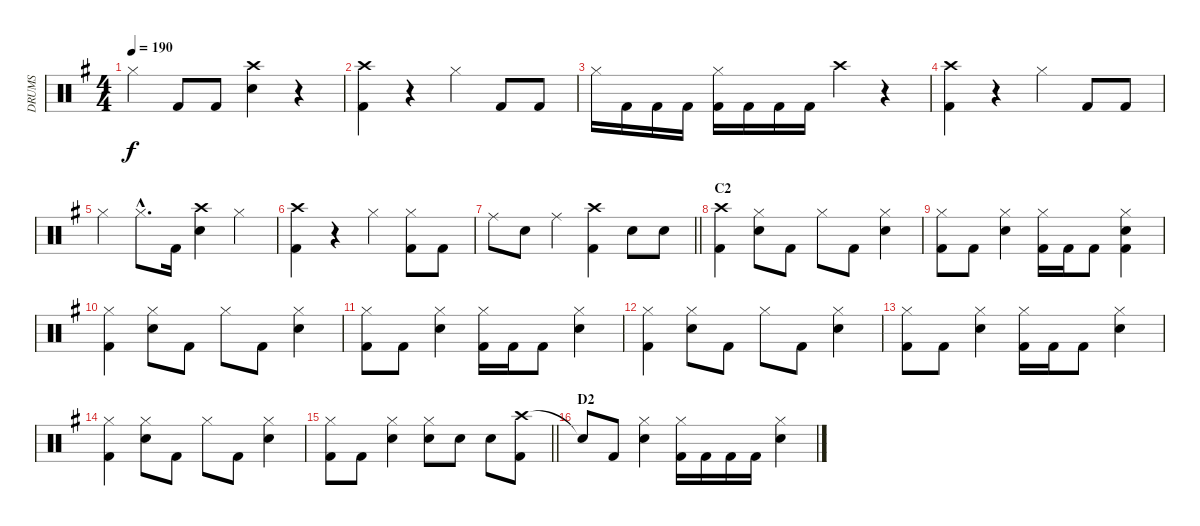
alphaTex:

\track ("DRUMS" "DRUMS") {instrument percussion}
\staff {score}
\articulation defaults
\ts (4 4)
\tempo 190
\clef neutral
\ks g "Hi-Hat (closed)".4{dy f} "Kick (hit) 2".8 "Kick (hit) 2".8
("Crash high (hit)" "Snare (hit) 2").4 r.4 |
("Crash high (hit)" "Kick (hit) 2").4 r.4 "Hi-Hat (closed)".4 "Kick (hit) 2".8 "Kick (hit) 2".8 |
"Hi-Hat (closed)".16 "Kick (hit) 2".16 "Kick (hit) 2".16 "Kick (hit) 2".16 ("Hi-Hat (closed)" "Kick (hit) 2").16 "Kick (hit) 2".16 "Kick (hit) 2".16 "Kick (hit) 2".16 "Crash high (hit)".4 r.4 |
("Crash high (hit)" "Kick (hit) 2").4 r.4 "Hi-Hat (closed)".4 "Kick (hit) 2".8 "Kick (hit) 2".8 |
"Hi-Hat (closed)".4 "Hi-Hat (closed)"{hac}.8{d} "Kick (hit) 2".16 ("Crash high (hit)" "Snare (hit) 2").4 "Hi-Hat (closed)".4 |
("Crash high (hit)" "Kick (hit) 2").4 r.4 "Hi-Hat (closed)".4 ("Hi-Hat (closed)" "Kick (hit) 2").8 "Kick (hit) 2".8 |
\barLineRight lightlight "Ride (middle)".8 "Snare (hit) 2".8 "Ride (middle)".4
("Crash high (hit)" "Kick (hit) 2").4 "Snare (hit) 2".8 "Snare (hit) 2".8 |
\section ("" "C2")
("Crash high (hit)" "Kick (hit) 2").4 ("Hi-Hat (closed)" "Snare (hit) 2").8 "Kick (hit) 2".8 "Hi-Hat (closed)".8 "Kick (hit) 2".8 ("Hi-Hat (closed)" "Snare (hit) 2").4 |
("Hi-Hat (closed)" "Kick (hit) 2").8 "Kick (hit) 2".8 ("Hi-Hat (closed)" "Snare (hit) 2").4 ("Hi-Hat (closed)" "Kick (hit) 2").16 "Kick (hit) 2".16 "Kick (hit) 2".8 ("Hi-Hat (closed)" "Snare (hit) 2" "Kick (hit) 2").4 |
("Hi-Hat (closed)" "Kick (hit) 2").4 ("Hi-Hat (closed)" "Snare (hit) 2").8 "Kick (hit) 2".8 "Hi-Hat (closed)".8 "Kick (hit) 2".8 ("Hi-Hat (closed)" "Snare (hit) 2").4 |
("Hi-Hat (closed)" "Kick (hit) 2").8 "Kick (hit) 2".8 ("Hi-Hat (closed)" "Snare (hit) 2").4 ("Hi-Hat (closed)" "Kick (hit) 2").16 "Kick (hit) 2".16 "Kick (hit) 2".8 ("Hi-Hat (closed)" "Snare (hit) 2").4 |
("Hi-Hat (closed)" "Kick (hit) 2").4 ("Hi-Hat (closed)" "Snare (hit) 2").8 "Kick (hit) 2".8 "Hi-Hat (closed)".8 "Kick (hit) 2".8 ("Hi-Hat (closed)" "Snare (hit) 2").4 |
("Hi-Hat (closed)" "Kick (hit) 2").8 "Kick (hit) 2".8 ("Hi-Hat (closed)" "Snare (hit) 2").4 ("Hi-Hat (closed)" "Kick (hit) 2").16 "Kick (hit) 2".16 "Kick (hit) 2".8 ("Hi-Hat (closed)" "Snare (hit) 2").4 |
("Hi-Hat (closed)" "Kick (hit) 2").4 ("Hi-Hat (closed)" "Snare (hit) 2").8 "Kick (hit) 2".8 "Hi-Hat (closed)".8 "Kick (hit) 2".8 ("Hi-Hat (closed)" "Snare (hit) 2").4 |
\barLineRight lightlight
("Hi-Hat (closed)" "Kick (hit) 2").8 "Kick (hit) 2".8 ("Hi-Hat (closed)" "Snare (hit) 2").4 ("Hi-Hat (closed)" "Snare (hit) 2").8 "Snare (hit) 2".8 "Snare (hit) 2".8 ("Crash high (hit)" "Kick (hit) 2").8 |
\section ("" "D2")
"Snare (hit)"{t}.8 "Kick (hit) 2".8 ("Hi-Hat (closed)" "Snare (hit) 2").4 ("Hi-Hat (closed)" "Kick (hit) 2").16 "Kick (hit) 2".16 "Kick (hit) 2".16 "Kick (hit) 2".16 ("Hi-Hat (closed)" "Snare (hit) 2").4
